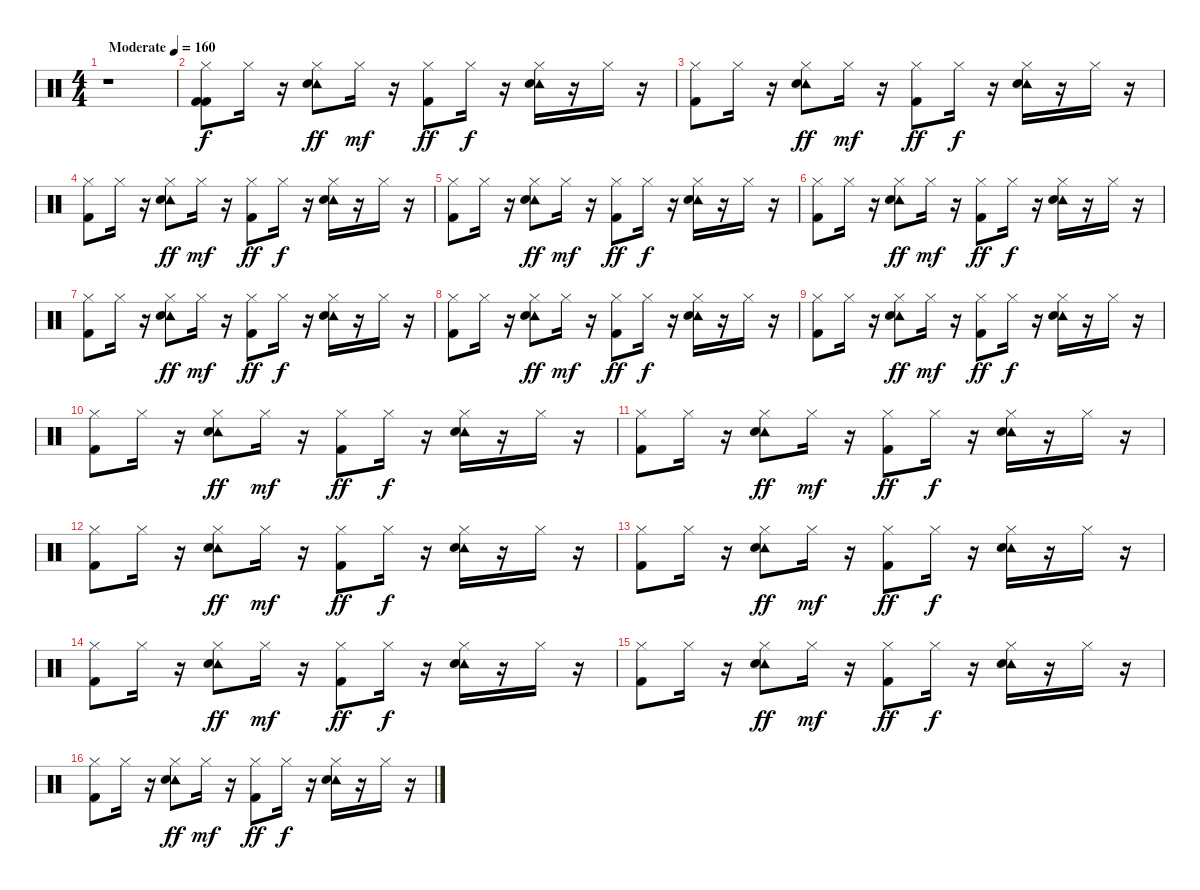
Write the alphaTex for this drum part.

\track "" {instrument percussion}
\staff {score}
\articulation defaults
\ts (4 4)
\tempo (160 "Moderate")
\clef neutral
\ks c
r.1{dy f} |
("Kick (hit) 2" "Hi-Hat (closed)" "Kick (hit) 2").8 "Hi-Hat (closed)".16 r.16 ("Tambourine (hit)" "Hi-Hat (closed)" "Snare (hit) 2").8{dy ff} "Hi-Hat (closed)".16{dy mf} r.16 ("Hi-Hat (closed)" "Kick (hit) 2").8{dy ff} "Hi-Hat (closed)".16{dy f} r.16 ("Tambourine (hit)" "Hi-Hat (closed)" "Snare (hit) 2").16 r.16 "Hi-Hat (closed)".16 r.16 |
("Hi-Hat (closed)" "Kick (hit) 2").8 "Hi-Hat (closed)".16 r.16 ("Tambourine (hit)" "Hi-Hat (closed)" "Snare (hit) 2").8{dy ff} "Hi-Hat (closed)".16{dy mf} r.16 ("Hi-Hat (closed)" "Kick (hit) 2").8{dy ff} "Hi-Hat (closed)".16{dy f} r.16 ("Tambourine (hit)" "Hi-Hat (closed)" "Snare (hit) 2").16 r.16 "Hi-Hat (closed)".16 r.16 |
("Hi-Hat (closed)" "Kick (hit) 2").8 "Hi-Hat (closed)".16 r.16 ("Tambourine (hit)" "Hi-Hat (closed)" "Snare (hit) 2").8{dy ff} "Hi-Hat (closed)".16{dy mf} r.16 ("Hi-Hat (closed)" "Kick (hit) 2").8{dy ff} "Hi-Hat (closed)".16{dy f} r.16 ("Tambourine (hit)" "Hi-Hat (closed)" "Snare (hit) 2").16 r.16 "Hi-Hat (closed)".16 r.16 |
("Hi-Hat (closed)" "Kick (hit) 2").8 "Hi-Hat (closed)".16 r.16 ("Tambourine (hit)" "Hi-Hat (closed)" "Snare (hit) 2").8{dy ff} "Hi-Hat (closed)".16{dy mf} r.16 ("Hi-Hat (closed)" "Kick (hit) 2").8{dy ff} "Hi-Hat (closed)".16{dy f} r.16 ("Tambourine (hit)" "Hi-Hat (closed)" "Snare (hit) 2").16 r.16 "Hi-Hat (closed)".16 r.16 |
("Hi-Hat (closed)" "Kick (hit) 2").8 "Hi-Hat (closed)".16 r.16 ("Tambourine (hit)" "Hi-Hat (closed)" "Snare (hit) 2").8{dy ff} "Hi-Hat (closed)".16{dy mf} r.16 ("Hi-Hat (closed)" "Kick (hit) 2").8{dy ff} "Hi-Hat (closed)".16{dy f} r.16 ("Tambourine (hit)" "Hi-Hat (closed)" "Snare (hit) 2").16 r.16 "Hi-Hat (closed)".16 r.16 |
("Hi-Hat (closed)" "Kick (hit) 2").8 "Hi-Hat (closed)".16 r.16 ("Tambourine (hit)" "Hi-Hat (closed)" "Snare (hit) 2").8{dy ff} "Hi-Hat (closed)".16{dy mf} r.16 ("Hi-Hat (closed)" "Kick (hit) 2").8{dy ff} "Hi-Hat (closed)".16{dy f} r.16 ("Tambourine (hit)" "Hi-Hat (closed)" "Snare (hit) 2").16 r.16 "Hi-Hat (closed)".16 r.16 |
("Hi-Hat (closed)" "Kick (hit) 2").8 "Hi-Hat (closed)".16 r.16 ("Tambourine (hit)" "Hi-Hat (closed)" "Snare (hit) 2").8{dy ff} "Hi-Hat (closed)".16{dy mf} r.16 ("Hi-Hat (closed)" "Kick (hit) 2").8{dy ff} "Hi-Hat (closed)".16{dy f} r.16 ("Tambourine (hit)" "Hi-Hat (closed)" "Snare (hit) 2").16 r.16 "Hi-Hat (closed)".16 r.16 |
("Hi-Hat (closed)" "Kick (hit) 2").8 "Hi-Hat (closed)".16 r.16 ("Tambourine (hit)" "Hi-Hat (closed)" "Snare (hit) 2").8{dy ff} "Hi-Hat (closed)".16{dy mf} r.16 ("Hi-Hat (closed)" "Kick (hit) 2").8{dy ff} "Hi-Hat (closed)".16{dy f} r.16 ("Tambourine (hit)" "Hi-Hat (closed)" "Snare (hit) 2").16 r.16 "Hi-Hat (closed)".16 r.16 |
("Hi-Hat (closed)" "Kick (hit) 2").8 "Hi-Hat (closed)".16 r.16 ("Tambourine (hit)" "Hi-Hat (closed)" "Snare (hit) 2").8{dy ff} "Hi-Hat (closed)".16{dy mf} r.16 ("Hi-Hat (closed)" "Kick (hit) 2").8{dy ff} "Hi-Hat (closed)".16{dy f} r.16 ("Tambourine (hit)" "Hi-Hat (closed)" "Snare (hit) 2").16 r.16 "Hi-Hat (closed)".16 r.16 |
("Hi-Hat (closed)" "Kick (hit) 2").8 "Hi-Hat (closed)".16 r.16 ("Tambourine (hit)" "Hi-Hat (closed)" "Snare (hit) 2").8{dy ff} "Hi-Hat (closed)".16{dy mf} r.16 ("Hi-Hat (closed)" "Kick (hit) 2").8{dy ff} "Hi-Hat (closed)".16{dy f} r.16 ("Tambourine (hit)" "Hi-Hat (closed)" "Snare (hit) 2").16 r.16 "Hi-Hat (closed)".16 r.16 |
("Hi-Hat (closed)" "Kick (hit) 2").8 "Hi-Hat (closed)".16 r.16 ("Tambourine (hit)" "Hi-Hat (closed)" "Snare (hit) 2").8{dy ff} "Hi-Hat (closed)".16{dy mf} r.16 ("Hi-Hat (closed)" "Kick (hit) 2").8{dy ff} "Hi-Hat (closed)".16{dy f} r.16 ("Tambourine (hit)" "Hi-Hat (closed)" "Snare (hit) 2").16 r.16 "Hi-Hat (closed)".16 r.16 |
("Hi-Hat (closed)" "Kick (hit) 2").8 "Hi-Hat (closed)".16 r.16 ("Tambourine (hit)" "Hi-Hat (closed)" "Snare (hit) 2").8{dy ff} "Hi-Hat (closed)".16{dy mf} r.16 ("Hi-Hat (closed)" "Kick (hit) 2").8{dy ff} "Hi-Hat (closed)".16{dy f} r.16 ("Tambourine (hit)" "Hi-Hat (closed)" "Snare (hit) 2").16 r.16 "Hi-Hat (closed)".16 r.16 |
("Hi-Hat (closed)" "Kick (hit) 2").8 "Hi-Hat (closed)".16 r.16 ("Tambourine (hit)" "Hi-Hat (closed)" "Snare (hit) 2").8{dy ff} "Hi-Hat (closed)".16{dy mf} r.16 ("Hi-Hat (closed)" "Kick (hit) 2").8{dy ff} "Hi-Hat (closed)".16{dy f} r.16 ("Tambourine (hit)" "Hi-Hat (closed)" "Snare (hit) 2").16 r.16 "Hi-Hat (closed)".16 r.16 |
("Hi-Hat (closed)" "Kick (hit) 2").8 "Hi-Hat (closed)".16 r.16 ("Tambourine (hit)" "Hi-Hat (closed)" "Snare (hit) 2").8{dy ff} "Hi-Hat (closed)".16{dy mf} r.16 ("Hi-Hat (closed)" "Kick (hit) 2").8{dy ff} "Hi-Hat (closed)".16{dy f} r.16 ("Tambourine (hit)" "Hi-Hat (closed)" "Snare (hit) 2").16 r.16 "Hi-Hat (closed)".16 r.16 |
("Hi-Hat (closed)" "Kick (hit) 2").8 "Hi-Hat (closed)".16 r.16 ("Tambourine (hit)" "Hi-Hat (closed)" "Snare (hit) 2").8{dy ff} "Hi-Hat (closed)".16{dy mf} r.16 ("Hi-Hat (closed)" "Kick (hit) 2").8{dy ff} "Hi-Hat (closed)".16{dy f} r.16 ("Tambourine (hit)" "Hi-Hat (closed)" "Snare (hit) 2").16 r.16 "Hi-Hat (closed)".16 r.16
